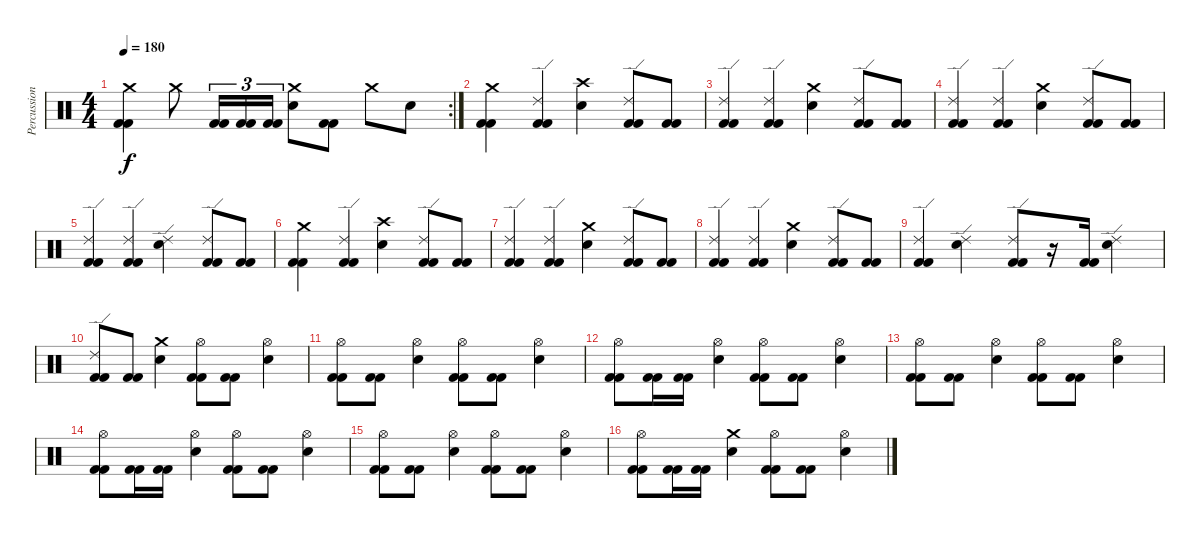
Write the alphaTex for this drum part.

\track ("Percussion" "Percussion") {instrument percussion}
\staff {score}
\articulation defaults
\rc 2
\ts (4 4)
\tempo 180
\clef neutral
\ks c
("Kick (hit) 2" "Kick (hit) 2" "Crash medium (hit)").4{dy f} "Crash medium (hit)".8 ("Kick (hit) 2" "Kick (hit) 2").16{tu (3 2)} ("Kick (hit) 2" "Kick (hit) 2").16{tu (3 2)} ("Kick (hit) 2" "Kick (hit) 2").16{tu (3 2)} ("Crash medium (hit)" "Electric Snare (hit)").8 ("Kick (hit) 2" "Kick (hit) 2").8 "Crash medium (hit)".8 "Electric Snare (hit)".8 |
("Kick (hit) 2" "Kick (hit) 2" "Crash medium (hit)").4 ("Kick (hit) 2" "Kick (hit) 2" "Ride (edge) 2").4 ("Electric Snare (hit)" "Crash high (hit)").4 ("Kick (hit) 2" "Kick (hit) 2" "Ride (edge) 2").8 ("Kick (hit) 2" "Kick (hit) 2").8 |
("Kick (hit) 2" "Kick (hit) 2" "Ride (edge) 2").4 ("Kick (hit) 2" "Kick (hit) 2" "Ride (edge) 2").4 ("Electric Snare (hit)" "Crash medium (hit)").4 ("Kick (hit) 2" "Kick (hit) 2" "Ride (edge) 2").8 ("Kick (hit) 2" "Kick (hit) 2").8 |
("Kick (hit) 2" "Kick (hit) 2" "Ride (edge) 2").4 ("Kick (hit) 2" "Kick (hit) 2" "Ride (edge) 2").4 ("Electric Snare (hit)" "Crash medium (hit)").4 ("Kick (hit) 2" "Kick (hit) 2" "Ride (edge) 2").8 ("Kick (hit) 2" "Kick (hit) 2").8 |
("Kick (hit) 2" "Kick (hit) 2" "Ride (edge) 2").4 ("Kick (hit) 2" "Kick (hit) 2" "Ride (edge) 2").4 ("Electric Snare (hit)" "Ride (edge) 2").4 ("Kick (hit) 2" "Kick (hit) 2" "Ride (edge) 2").8 ("Kick (hit) 2" "Kick (hit) 2").8 |
("Kick (hit) 2" "Kick (hit) 2" "Crash medium (hit)").4 ("Kick (hit) 2" "Kick (hit) 2" "Ride (edge) 2").4 ("Electric Snare (hit)" "Crash high (hit)").4 ("Kick (hit) 2" "Kick (hit) 2" "Ride (edge) 2").8 ("Kick (hit) 2" "Kick (hit) 2").8 |
("Kick (hit) 2" "Kick (hit) 2" "Ride (edge) 2").4 ("Kick (hit) 2" "Kick (hit) 2" "Ride (edge) 2").4 ("Electric Snare (hit)" "Crash medium (hit)").4 ("Kick (hit) 2" "Kick (hit) 2" "Ride (edge) 2").8 ("Kick (hit) 2" "Kick (hit) 2").8 |
("Kick (hit) 2" "Kick (hit) 2" "Ride (edge) 2").4 ("Kick (hit) 2" "Kick (hit) 2" "Ride (edge) 2").4 ("Electric Snare (hit)" "Crash medium (hit)").4 ("Kick (hit) 2" "Kick (hit) 2" "Ride (edge) 2").8 ("Kick (hit) 2" "Kick (hit) 2").8 |
("Kick (hit) 2" "Kick (hit) 2" "Ride (edge) 2").4 ("Ride (edge) 2" "Electric Snare (hit)").4 ("Kick (hit) 2" "Kick (hit) 2" "Ride (edge) 2").8 r.16 ("Kick (hit) 2" "Kick (hit) 2").16 ("Ride (edge) 2" "Electric Snare (hit)").4 |
("Kick (hit) 2" "Kick (hit) 2" "Ride (edge) 2").8 ("Kick (hit) 2" "Kick (hit) 2").8 ("Electric Snare (hit)" "Crash medium (hit)").4 ("Kick (hit) 2" "Kick (hit) 2" "Hi-Hat (open)").8 ("Kick (hit) 2" "Kick (hit) 2").8 ("Hi-Hat (open)" "Electric Snare (hit)").4 |
("Kick (hit) 2" "Kick (hit) 2" "Hi-Hat (open)").8 ("Kick (hit) 2" "Kick (hit) 2").8 ("Hi-Hat (open)" "Electric Snare (hit)").4 ("Kick (hit) 2" "Kick (hit) 2" "Hi-Hat (open)").8 ("Kick (hit) 2" "Kick (hit) 2").8 ("Hi-Hat (open)" "Electric Snare (hit)").4 |
("Kick (hit) 2" "Kick (hit) 2" "Hi-Hat (open)").8 ("Kick (hit) 2" "Kick (hit) 2").16 ("Kick (hit) 2" "Kick (hit) 2").16 ("Electric Snare (hit)" "Hi-Hat (open)").4 ("Kick (hit) 2" "Kick (hit) 2" "Hi-Hat (open)").8 ("Kick (hit) 2" "Kick (hit) 2").8 ("Hi-Hat (open)" "Electric Snare (hit)").4 |
("Kick (hit) 2" "Kick (hit) 2" "Hi-Hat (open)").8 ("Kick (hit) 2" "Kick (hit) 2").8 ("Hi-Hat (open)" "Electric Snare (hit)").4 ("Kick (hit) 2" "Kick (hit) 2" "Hi-Hat (open)").8 ("Kick (hit) 2" "Kick (hit) 2").8 ("Hi-Hat (open)" "Electric Snare (hit)").4 |
("Kick (hit) 2" "Kick (hit) 2" "Hi-Hat (open)").8 ("Kick (hit) 2" "Kick (hit) 2").16 ("Kick (hit) 2" "Kick (hit) 2").16 ("Electric Snare (hit)" "Hi-Hat (open)").4 ("Kick (hit) 2" "Kick (hit) 2" "Hi-Hat (open)").8 ("Kick (hit) 2" "Kick (hit) 2").8 ("Hi-Hat (open)" "Electric Snare (hit)").4 |
("Kick (hit) 2" "Kick (hit) 2" "Hi-Hat (open)").8 ("Kick (hit) 2" "Kick (hit) 2").8 ("Hi-Hat (open)" "Electric Snare (hit)").4 ("Kick (hit) 2" "Kick (hit) 2" "Hi-Hat (open)").8 ("Kick (hit) 2" "Kick (hit) 2").8 ("Hi-Hat (open)" "Electric Snare (hit)").4 |
("Kick (hit) 2" "Kick (hit) 2" "Hi-Hat (open)").8 ("Kick (hit) 2" "Kick (hit) 2").16 ("Kick (hit) 2" "Kick (hit) 2").16 ("Crash medium (hit)" "Electric Snare (hit)").4 ("Kick (hit) 2" "Kick (hit) 2" "Hi-Hat (open)").8 ("Kick (hit) 2" "Kick (hit) 2").8 ("Hi-Hat (open)" "Electric Snare (hit)").4
